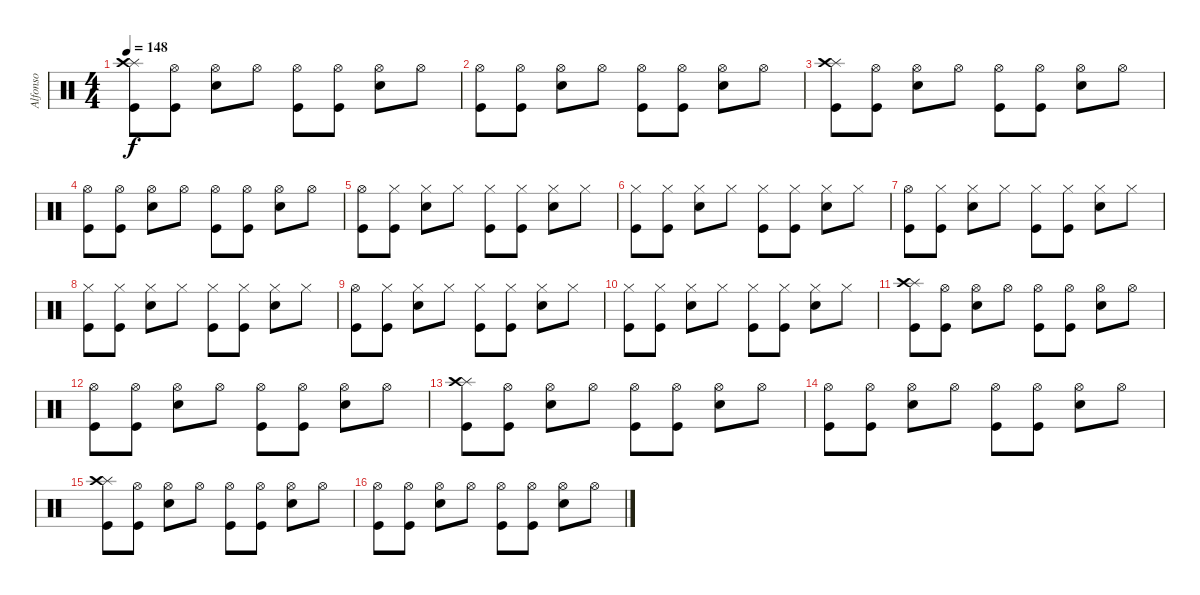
\track ("Alfonso" "Alfonso") {instrument percussion}
\staff {score}
\articulation defaults
\ts (4 4)
\tempo 148
\clef neutral
\ks c
("Kick (hit)" "Splash (hit)" "Crash high (hit)").8{dy f} ("Kick (hit)" "Hi-Hat (open)").8 ("Snare (hit) 2" "Hi-Hat (open)").8 "Hi-Hat (open)".8 ("Kick (hit)" "Hi-Hat (open)").8 ("Kick (hit)" "Hi-Hat (open)").8 ("Snare (hit) 2" "Hi-Hat (open)").8 "Hi-Hat (open)".8 |
("Kick (hit)" "Hi-Hat (open)").8 ("Kick (hit)" "Hi-Hat (open)").8 ("Snare (hit) 2" "Hi-Hat (open)").8 "Hi-Hat (open)".8 ("Kick (hit)" "Hi-Hat (open)").8 ("Kick (hit)" "Hi-Hat (open)").8 ("Snare (hit) 2" "Hi-Hat (open)").8 "Hi-Hat (open)".8 |
("Kick (hit)" "Splash (hit)" "Crash high (hit)").8 ("Kick (hit)" "Hi-Hat (open)").8 ("Snare (hit) 2" "Hi-Hat (open)").8 "Hi-Hat (open)".8 ("Kick (hit)" "Hi-Hat (open)").8 ("Kick (hit)" "Hi-Hat (open)").8 ("Snare (hit) 2" "Hi-Hat (open)").8 "Hi-Hat (open)".8 |
("Kick (hit)" "Hi-Hat (open)").8 ("Kick (hit)" "Hi-Hat (open)").8 ("Snare (hit) 2" "Hi-Hat (open)").8 "Hi-Hat (open)".8 ("Kick (hit)" "Hi-Hat (open)").8 ("Kick (hit)" "Hi-Hat (open)").8 ("Snare (hit) 2" "Hi-Hat (open)").8 "Hi-Hat (open)".8 |
("Kick (hit)" "Hi-Hat (open)").8 ("Kick (hit)" "Hi-Hat (closed)").8 ("Snare (hit) 2" "Hi-Hat (closed)").8 "Hi-Hat (closed)".8 ("Kick (hit)" "Hi-Hat (closed)").8 ("Kick (hit)" "Hi-Hat (closed)").8 ("Snare (hit) 2" "Hi-Hat (closed)").8 "Hi-Hat (closed)".8 |
("Kick (hit)" "Hi-Hat (closed)").8 ("Kick (hit)" "Hi-Hat (closed)").8 ("Snare (hit) 2" "Hi-Hat (closed)").8 "Hi-Hat (closed)".8 ("Kick (hit)" "Hi-Hat (closed)").8 ("Kick (hit)" "Hi-Hat (closed)").8 ("Snare (hit) 2" "Hi-Hat (closed)").8 "Hi-Hat (closed)".8 |
("Kick (hit)" "Hi-Hat (open)").8 ("Kick (hit)" "Hi-Hat (closed)").8 ("Snare (hit) 2" "Hi-Hat (closed)").8 "Hi-Hat (closed)".8 ("Kick (hit)" "Hi-Hat (closed)").8 ("Kick (hit)" "Hi-Hat (closed)").8 ("Snare (hit) 2" "Hi-Hat (closed)").8 "Hi-Hat (closed)".8 |
("Kick (hit)" "Hi-Hat (closed)").8 ("Kick (hit)" "Hi-Hat (closed)").8 ("Snare (hit) 2" "Hi-Hat (closed)").8 "Hi-Hat (closed)".8 ("Kick (hit)" "Hi-Hat (closed)").8 ("Kick (hit)" "Hi-Hat (closed)").8 ("Snare (hit) 2" "Hi-Hat (closed)").8 "Hi-Hat (closed)".8 |
("Kick (hit)" "Hi-Hat (open)").8 ("Kick (hit)" "Hi-Hat (closed)").8 ("Snare (hit) 2" "Hi-Hat (closed)").8 "Hi-Hat (closed)".8 ("Kick (hit)" "Hi-Hat (closed)").8 ("Kick (hit)" "Hi-Hat (closed)").8 ("Snare (hit) 2" "Hi-Hat (closed)").8 "Hi-Hat (closed)".8 |
("Kick (hit)" "Hi-Hat (closed)").8 ("Kick (hit)" "Hi-Hat (closed)").8 ("Snare (hit) 2" "Hi-Hat (closed)").8 "Hi-Hat (closed)".8 ("Kick (hit)" "Hi-Hat (closed)").8 ("Kick (hit)" "Hi-Hat (closed)").8 ("Snare (hit) 2" "Hi-Hat (closed)").8 "Hi-Hat (closed)".8 |
("Kick (hit)" "Splash (hit)" "Crash high (hit)").8 ("Kick (hit)" "Hi-Hat (open)").8 ("Snare (hit) 2" "Hi-Hat (open)").8 "Hi-Hat (open)".8 ("Kick (hit)" "Hi-Hat (open)").8 ("Kick (hit)" "Hi-Hat (open)").8 ("Snare (hit) 2" "Hi-Hat (open)").8 "Hi-Hat (open)".8 |
("Kick (hit)" "Hi-Hat (open)").8 ("Kick (hit)" "Hi-Hat (open)").8 ("Snare (hit) 2" "Hi-Hat (open)").8 "Hi-Hat (open)".8 ("Kick (hit)" "Hi-Hat (open)").8 ("Kick (hit)" "Hi-Hat (open)").8 ("Snare (hit) 2" "Hi-Hat (open)").8 "Hi-Hat (open)".8 |
("Kick (hit)" "Splash (hit)" "Crash high (hit)").8 ("Kick (hit)" "Hi-Hat (open)").8 ("Snare (hit) 2" "Hi-Hat (open)").8 "Hi-Hat (open)".8 ("Kick (hit)" "Hi-Hat (open)").8 ("Kick (hit)" "Hi-Hat (open)").8 ("Snare (hit) 2" "Hi-Hat (open)").8 "Hi-Hat (open)".8 |
("Kick (hit)" "Hi-Hat (open)").8 ("Kick (hit)" "Hi-Hat (open)").8 ("Snare (hit) 2" "Hi-Hat (open)").8 "Hi-Hat (open)".8 ("Kick (hit)" "Hi-Hat (open)").8 ("Kick (hit)" "Hi-Hat (open)").8 ("Snare (hit) 2" "Hi-Hat (open)").8 "Hi-Hat (open)".8 |
("Kick (hit)" "Splash (hit)" "Crash high (hit)").8 ("Kick (hit)" "Hi-Hat (open)").8 ("Snare (hit) 2" "Hi-Hat (open)").8 "Hi-Hat (open)".8 ("Kick (hit)" "Hi-Hat (open)").8 ("Kick (hit)" "Hi-Hat (open)").8 ("Snare (hit) 2" "Hi-Hat (open)").8 "Hi-Hat (open)".8 |
("Kick (hit)" "Hi-Hat (open)").8 ("Kick (hit)" "Hi-Hat (open)").8 ("Snare (hit) 2" "Hi-Hat (open)").8 "Hi-Hat (open)".8 ("Kick (hit)" "Hi-Hat (open)").8 ("Kick (hit)" "Hi-Hat (open)").8 ("Snare (hit) 2" "Hi-Hat (open)").8 "Hi-Hat (open)".8
